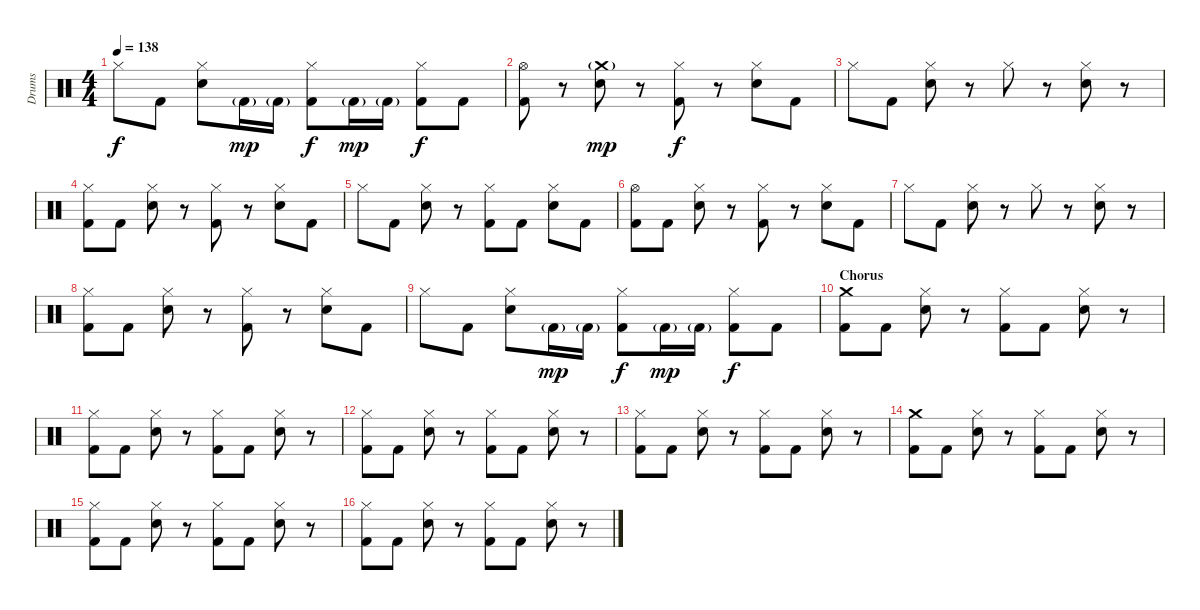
\track ("Drums" "Drums") {instrument percussion}
\staff {score}
\articulation defaults
\ts (4 4)
\tempo 138
\clef neutral
\ks c "Hi-Hat (closed)".8{dy f} "Kick (hit) 2".8
("Hi-Hat (closed)" "Electric Snare (hit)").8 "Kick (hit) 2"{g}.16{dy mp} "Kick (hit) 2"{g}.16 ("Hi-Hat (closed)" "Kick (hit) 2").8{dy f} "Kick (hit) 2"{g}.16{dy mp} "Kick (hit) 2"{g}.16 ("Hi-Hat (closed)" "Kick (hit) 2").8{dy f} "Kick (hit) 2".8 |
("Hi-Hat (open)" "Kick (hit) 2").8 r.8 ("Crash medium (hit)"{g} "Electric Snare (hit)").8{dy mp} r.8 ("Hi-Hat (closed)" "Kick (hit) 2").8{dy f} r.8 ("Hi-Hat (closed)" "Electric Snare (hit)").8 "Kick (hit) 2".8 |
"Hi-Hat (closed)".8 "Kick (hit) 2".8 ("Hi-Hat (closed)" "Electric Snare (hit)").8 r.8 "Hi-Hat (closed)".8 r.8 ("Hi-Hat (closed)" "Electric Snare (hit)").8 r.8 |
("Hi-Hat (closed)" "Kick (hit) 2").8 "Kick (hit) 2".8 ("Hi-Hat (closed)" "Electric Snare (hit)").8 r.8 ("Hi-Hat (closed)" "Kick (hit) 2").8 r.8 ("Hi-Hat (closed)" "Electric Snare (hit)").8 "Kick (hit) 2".8 |
"Hi-Hat (closed)".8 "Kick (hit) 2".8 ("Hi-Hat (closed)" "Electric Snare (hit)").8 r.8 ("Hi-Hat (closed)" "Kick (hit) 2").8 "Kick (hit) 2".8 ("Hi-Hat (closed)" "Electric Snare (hit)").8 "Kick (hit) 2".8 |
("Hi-Hat (open)" "Kick (hit) 2").8 "Kick (hit) 2".8 ("Hi-Hat (closed)" "Electric Snare (hit)").8 r.8 ("Hi-Hat (closed)" "Kick (hit) 2").8 r.8 ("Hi-Hat (closed)" "Electric Snare (hit)").8 "Kick (hit) 2".8 |
"Hi-Hat (closed)".8 "Kick (hit) 2".8 ("Hi-Hat (closed)" "Electric Snare (hit)").8 r.8 "Hi-Hat (closed)".8 r.8 ("Hi-Hat (closed)" "Electric Snare (hit)").8 r.8 |
("Hi-Hat (closed)" "Kick (hit) 2").8 "Kick (hit) 2".8 ("Hi-Hat (closed)" "Electric Snare (hit)").8 r.8 ("Hi-Hat (closed)" "Kick (hit) 2").8 r.8 ("Hi-Hat (closed)" "Electric Snare (hit)").8 "Kick (hit) 2".8 |
"Hi-Hat (closed)".8 "Kick (hit) 2".8 ("Hi-Hat (closed)" "Electric Snare (hit)").8 "Kick (hit) 2"{g}.16{dy mp} "Kick (hit) 2"{g}.16 ("Hi-Hat (closed)" "Kick (hit) 2").8{dy f} "Kick (hit) 2"{g}.16{dy mp} "Kick (hit) 2"{g}.16 ("Hi-Hat (closed)" "Kick (hit) 2").8{dy f} "Kick (hit) 2".8 |
\section ("" "Chorus")
("Crash medium (hit)" "Kick (hit) 2").8 "Kick (hit) 2".8 ("Hi-Hat (closed)" "Electric Snare (hit)").8 r.8 ("Hi-Hat (closed)" "Kick (hit) 2").8 "Kick (hit) 2".8 ("Hi-Hat (closed)" "Electric Snare (hit)").8 r.8 |
("Hi-Hat (closed)" "Kick (hit) 2").8 "Kick (hit) 2".8 ("Hi-Hat (closed)" "Electric Snare (hit)").8 r.8 ("Hi-Hat (closed)" "Kick (hit) 2").8 "Kick (hit) 2".8 ("Hi-Hat (closed)" "Electric Snare (hit)").8 r.8 |
("Hi-Hat (closed)" "Kick (hit) 2").8 "Kick (hit) 2".8 ("Hi-Hat (closed)" "Electric Snare (hit)").8 r.8 ("Hi-Hat (closed)" "Kick (hit) 2").8 "Kick (hit) 2".8 ("Hi-Hat (closed)" "Electric Snare (hit)").8 r.8 |
("Hi-Hat (closed)" "Kick (hit) 2").8 "Kick (hit) 2".8 ("Hi-Hat (closed)" "Electric Snare (hit)").8 r.8 ("Hi-Hat (closed)" "Kick (hit) 2").8 "Kick (hit) 2".8 ("Hi-Hat (closed)" "Electric Snare (hit)").8 r.8 |
("Crash medium (hit)" "Kick (hit) 2").8 "Kick (hit) 2".8 ("Hi-Hat (closed)" "Electric Snare (hit)").8 r.8 ("Hi-Hat (closed)" "Kick (hit) 2").8 "Kick (hit) 2".8 ("Hi-Hat (closed)" "Electric Snare (hit)").8 r.8 |
("Hi-Hat (closed)" "Kick (hit) 2").8 "Kick (hit) 2".8 ("Hi-Hat (closed)" "Electric Snare (hit)").8 r.8 ("Hi-Hat (closed)" "Kick (hit) 2").8 "Kick (hit) 2".8 ("Hi-Hat (closed)" "Electric Snare (hit)").8 r.8 |
("Hi-Hat (closed)" "Kick (hit) 2").8 "Kick (hit) 2".8 ("Hi-Hat (closed)" "Electric Snare (hit)").8 r.8 ("Hi-Hat (closed)" "Kick (hit) 2").8 "Kick (hit) 2".8 ("Hi-Hat (closed)" "Electric Snare (hit)").8 r.8
